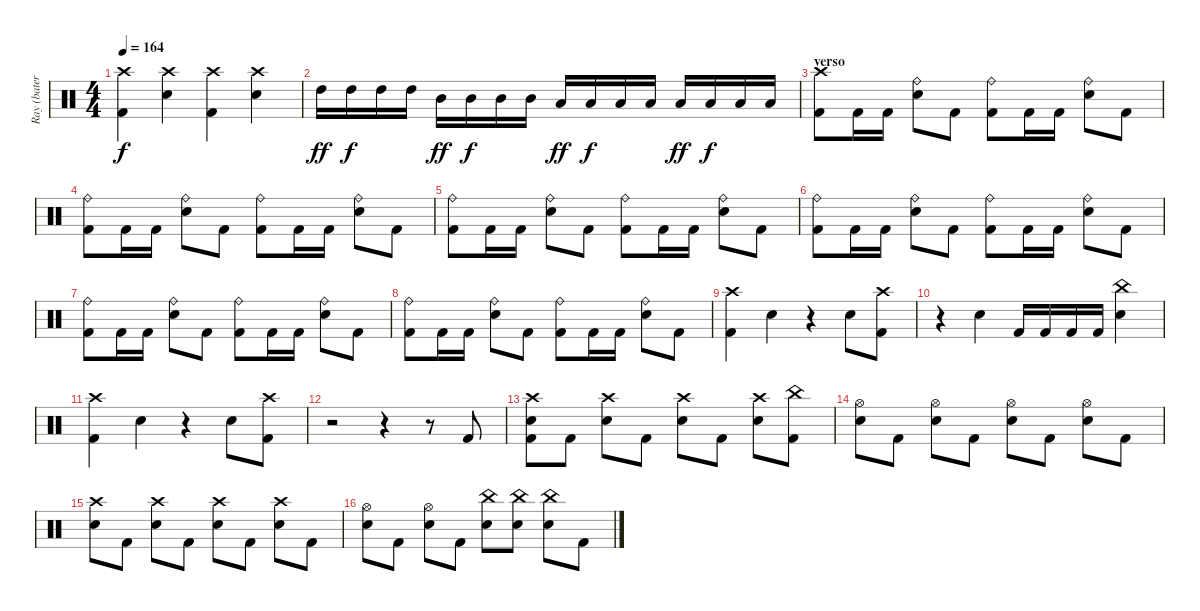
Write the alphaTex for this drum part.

\track ("Ray (batería)" "Ray (bater") {instrument percussion}
\staff {score}
\articulation defaults
\ts (4 4)
\tempo 164
\clef neutral
\ks c
("Crash high (hit)" "Kick (hit) 2").4{dy f} ("Crash high (hit)" "Snare (hit) 2").4 ("Crash high (hit)" "Kick (hit) 2").4 ("Crash high (hit)" "Snare (hit) 2").4 |
"High Tom (hit)".16{dy ff} "High Tom (hit)".16{dy f} "High Tom (hit)".16 "High Tom (hit)".16 "Mid Tom (hit)".16{dy ff} "Mid Tom (hit)".16{dy f} "Mid Tom (hit)".16 "Mid Tom (hit)".16 "Low Tom (hit)".16{dy ff} "Low Tom (hit)".16{dy f} "Low Tom (hit)".16 "Low Tom (hit)".16 "Low Floor Tom (hit)".16{dy ff} "Low Floor Tom (hit)".16{dy f} "Low Floor Tom (hit)".16 "Low Floor Tom (hit)".16 |
\section ("" "verso")
("Crash high (hit)" "Kick (hit) 2").8 "Kick (hit) 2".16 "Kick (hit) 2".16 ("Ride (bell)" "Snare (hit) 2").8 "Kick (hit) 2".8 ("Ride (bell)" "Kick (hit) 2").8 "Kick (hit) 2".16 "Kick (hit) 2".16 ("Ride (bell)" "Snare (hit) 2").8 "Kick (hit) 2".8 |
("Ride (bell)" "Kick (hit) 2").8 "Kick (hit) 2".16 "Kick (hit) 2".16 ("Ride (bell)" "Snare (hit) 2").8 "Kick (hit) 2".8 ("Ride (bell)" "Kick (hit) 2").8 "Kick (hit) 2".16 "Kick (hit) 2".16 ("Ride (bell)" "Snare (hit) 2").8 "Kick (hit) 2".8 |
("Ride (bell)" "Kick (hit) 2").8 "Kick (hit) 2".16 "Kick (hit) 2".16 ("Ride (bell)" "Snare (hit) 2").8 "Kick (hit) 2".8 ("Ride (bell)" "Kick (hit) 2").8 "Kick (hit) 2".16 "Kick (hit) 2".16 ("Ride (bell)" "Snare (hit) 2").8 "Kick (hit) 2".8 |
("Ride (bell)" "Kick (hit) 2").8 "Kick (hit) 2".16 "Kick (hit) 2".16 ("Ride (bell)" "Snare (hit) 2").8 "Kick (hit) 2".8 ("Ride (bell)" "Kick (hit) 2").8 "Kick (hit) 2".16 "Kick (hit) 2".16 ("Ride (bell)" "Snare (hit) 2").8 "Kick (hit) 2".8 |
("Ride (bell)" "Kick (hit) 2").8 "Kick (hit) 2".16 "Kick (hit) 2".16 ("Ride (bell)" "Snare (hit) 2").8 "Kick (hit) 2".8 ("Ride (bell)" "Kick (hit) 2").8 "Kick (hit) 2".16 "Kick (hit) 2".16 ("Ride (bell)" "Snare (hit) 2").8 "Kick (hit) 2".8 |
("Ride (bell)" "Kick (hit) 2").8 "Kick (hit) 2".16 "Kick (hit) 2".16 ("Ride (bell)" "Snare (hit) 2").8 "Kick (hit) 2".8 ("Ride (bell)" "Kick (hit) 2").8 "Kick (hit) 2".16 "Kick (hit) 2".16 ("Ride (bell)" "Snare (hit) 2").8 "Kick (hit) 2".8 |
("Crash high (hit)" "Kick (hit) 2").4 "Snare (hit) 2".4 r.4 "Snare (hit) 2".8 ("Crash high (hit)" "Kick (hit) 2").8 |
r.4 "Snare (hit) 2".4 "Kick (hit) 2".16 "Kick (hit) 2".16 "Kick (hit) 2".16 "Kick (hit) 2".16 ("China (hit)" "Snare (hit) 2").4 |
("Crash high (hit)" "Kick (hit) 2").4 "Snare (hit) 2".4 r.4 "Snare (hit) 2".8 ("Crash high (hit)" "Kick (hit) 2").8 |
r.2 r.4 r.8 "Kick (hit) 2".8 |
\section ("" "")
("Crash high (hit)" "Snare (hit) 2" "Kick (hit) 2").8 "Kick (hit) 2".8 ("Crash high (hit)" "Snare (hit) 2").8 "Kick (hit) 2".8 ("Crash high (hit)" "Snare (hit) 2").8 "Kick (hit) 2".8 ("Crash high (hit)" "Snare (hit) 2").8 ("China (hit)" "Kick (hit) 2").8 |
("Hi-Hat (open)" "Snare (hit) 2").8 "Kick (hit) 2".8 ("Hi-Hat (open)" "Snare (hit) 2").8 "Kick (hit) 2".8 ("Hi-Hat (open)" "Snare (hit) 2").8 "Kick (hit) 2".8 ("Hi-Hat (open)" "Snare (hit) 2").8 "Kick (hit) 2".8 |
("Crash high (hit)" "Snare (hit) 2").8 "Kick (hit) 2".8 ("Crash high (hit)" "Snare (hit) 2").8 "Kick (hit) 2".8 ("Crash high (hit)" "Snare (hit) 2").8 "Kick (hit) 2".8 ("Crash high (hit)" "Snare (hit) 2").8 "Kick (hit) 2".8 |
("Hi-Hat (open)" "Snare (hit) 2").8 "Kick (hit) 2".8 ("Hi-Hat (open)" "Snare (hit) 2").8 "Kick (hit) 2".8 ("China (hit)" "Snare (hit) 2").8 ("China (hit)" "Snare (hit) 2").8 ("China (hit)" "Snare (hit) 2").8 "Kick (hit) 2".8
